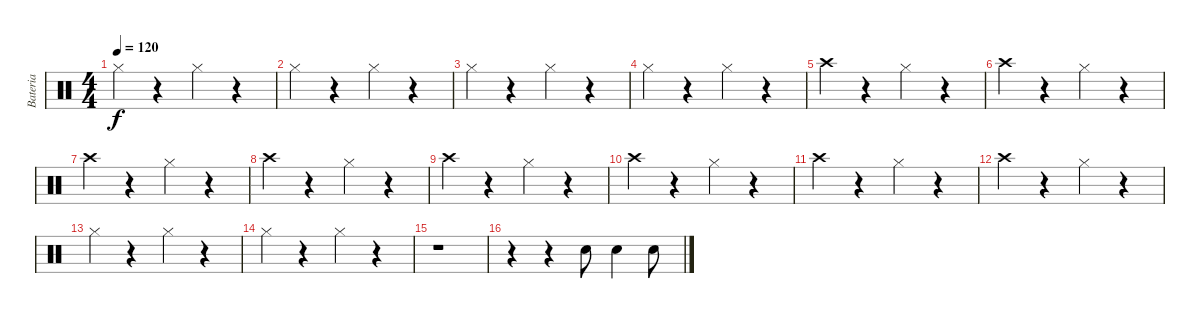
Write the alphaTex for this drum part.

\track ("Bateria" "Bateria") {instrument percussion}
\staff {score}
\articulation defaults
\ts (4 4)
\tempo 120
\clef neutral
\ks c "Hi-Hat (closed)".4{dy f}
r.4 "Hi-Hat (closed)".4 r.4 |
"Hi-Hat (closed)".4 r.4 "Hi-Hat (closed)".4 r.4 |
"Hi-Hat (closed)".4 r.4 "Hi-Hat (closed)".4 r.4 |
"Hi-Hat (closed)".4 r.4 "Hi-Hat (closed)".4 r.4 |
"Crash high (hit)".4 r.4 "Hi-Hat (closed)".4 r.4 |
"Crash high (hit)".4 r.4 "Hi-Hat (closed)".4 r.4 |
"Crash high (hit)".4 r.4 "Hi-Hat (closed)".4 r.4 |
"Crash high (hit)".4 r.4 "Hi-Hat (closed)".4 r.4 |
"Crash high (hit)".4 r.4 "Hi-Hat (closed)".4 r.4 |
"Crash high (hit)".4 r.4 "Hi-Hat (closed)".4 r.4 |
"Crash high (hit)".4 r.4 "Hi-Hat (closed)".4 r.4 |
"Crash high (hit)".4 r.4 "Hi-Hat (closed)".4 r.4 |
"Hi-Hat (closed)".4 r.4 "Hi-Hat (closed)".4 r.4 |
"Hi-Hat (closed)".4 r.4 "Hi-Hat (closed)".4 r.4 |
r.1 |
r.4 r.4 "Snare (hit) 2".8 "Snare (hit) 2".4 "Snare (hit) 2".8
